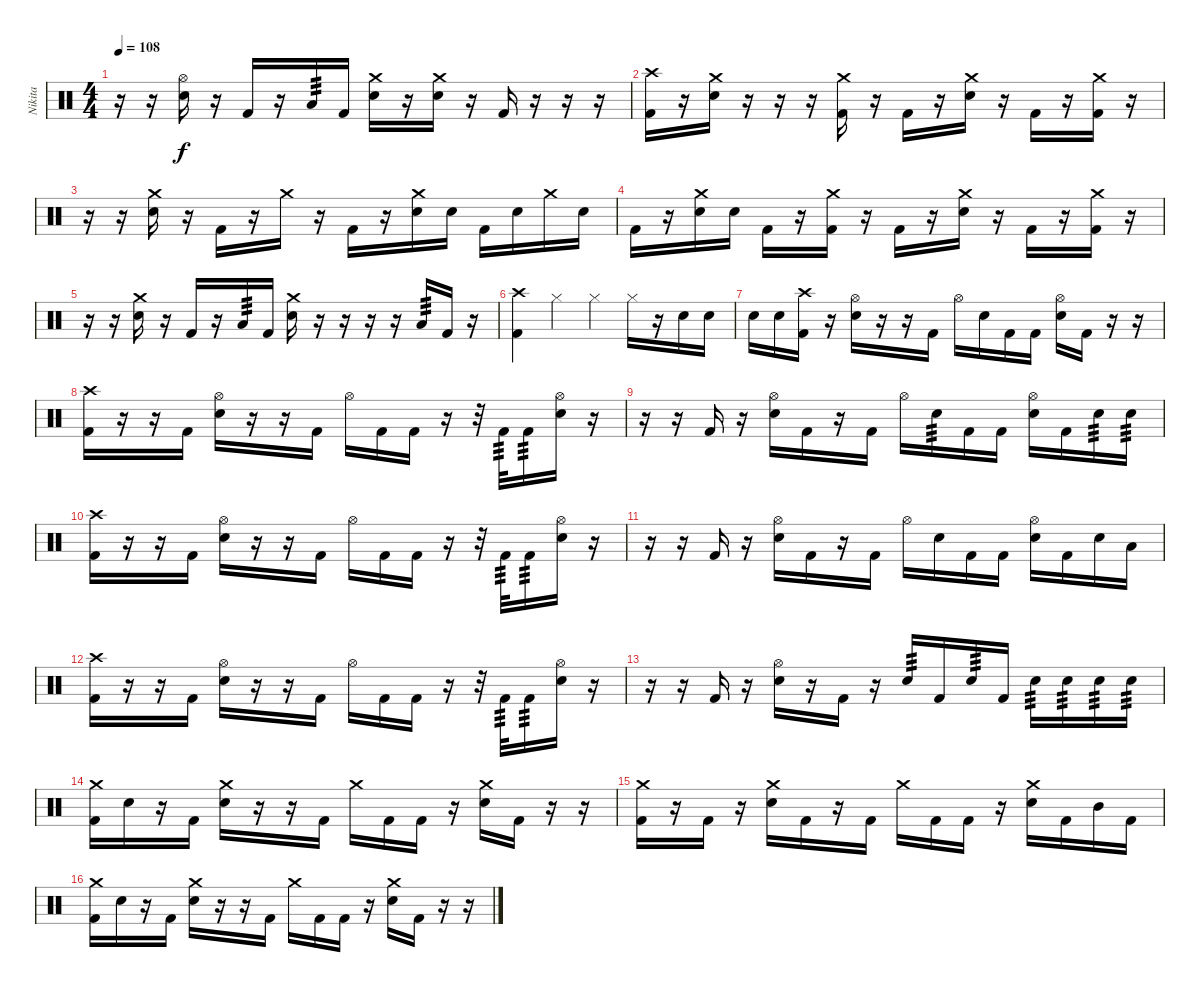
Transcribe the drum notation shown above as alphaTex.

\track ("Nikita" "Nikita") {instrument percussion}
\staff {score}
\articulation defaults
\ts (4 4)
\tempo 108
\clef neutral
\ks c
r.16{dy f} r.16 ("Hi-Hat (open)" "Electric Snare (hit)").16 r.16 "Kick (hit) 2".16 r.16 "Low Tom (hit)".16{tp 3} "Kick (hit) 2".16 ("Crash medium (hit)" "Electric Snare (hit)").16 r.16 ("Crash medium (hit)" "Electric Snare (hit)").16 r.16 "Kick (hit) 2".16 r.16 r.16 r.16 |
("Crash high (hit)" "Kick (hit) 2").16 r.16 ("Crash medium (hit)" "Electric Snare (hit)").16 r.16 r.16 r.16 ("Crash medium (hit)" "Kick (hit) 2").16 r.16 "Kick (hit) 2".16 r.16 ("Crash medium (hit)" "Electric Snare (hit)").16 r.16 "Kick (hit) 2".16 r.16 ("Crash medium (hit)" "Kick (hit) 2").16 r.16 |
r.16 r.16 ("Crash medium (hit)" "Electric Snare (hit)").16 r.16 "Kick (hit) 2".16 r.16 "Crash medium (hit)".16 r.16 "Kick (hit) 2".16 r.16 ("Crash medium (hit)" "Electric Snare (hit)").16 "Electric Snare (hit)".16 "Kick (hit) 2".16 "Electric Snare (hit)".16 "Crash medium (hit)".16 "Electric Snare (hit)".16 |
"Kick (hit) 2".16 r.16 ("Crash medium (hit)" "Electric Snare (hit)").16 "Electric Snare (hit)".16 "Kick (hit) 2".16 r.16 ("Crash medium (hit)" "Kick (hit) 2").16 r.16 "Kick (hit) 2".16 r.16 ("Crash medium (hit)" "Electric Snare (hit)").16 r.16 "Kick (hit) 2".16 r.16 ("Crash medium (hit)" "Kick (hit) 2").16 r.16 |
r.16 r.16 ("Crash medium (hit)" "Electric Snare (hit)").16 r.16 "Kick (hit) 2".16 r.16 "Low Tom (hit)".16{tp 3} "Kick (hit) 2".16 ("Crash medium (hit)" "Electric Snare (hit)").16 r.16 r.16 r.16 r.16 "Low Tom (hit)".16{tp 3} "Kick (hit) 2".16 r.16 |
("Crash high (hit)" "Kick (hit) 2").4 "Hi-Hat (closed)".4 "Hi-Hat (closed)".4 "Hi-Hat (closed)".16 r.16 "Electric Snare (hit)".16 "Electric Snare (hit)".16 |
"Electric Snare (hit)".16 "Electric Snare (hit)".16 ("Crash high (hit)" "Kick (hit) 2").16 r.16 ("Hi-Hat (open)" "Electric Snare (hit)").16 r.16 r.16 "Kick (hit) 2".16 "Hi-Hat (open)".16 "Electric Snare (hit)".16 "Kick (hit) 2".16 "Kick (hit) 2".16 ("Hi-Hat (open)" "Electric Snare (hit)").16 "Kick (hit) 2".16 r.16 r.16 |
("Crash high (hit)" "Kick (hit) 2").16 r.16 r.16 "Kick (hit) 2".16 ("Hi-Hat (open)" "Electric Snare (hit)").16 r.16 r.16 "Kick (hit) 2".16 "Hi-Hat (open)".16 "Kick (hit) 2".16 "Kick (hit) 2".16 r.16 r.32 "Kick (hit) 2".32{tp 3} "Kick (hit) 2".16{tp 3} ("Hi-Hat (open)" "Electric Snare (hit)").16 r.16 |
r.16 r.16 "Kick (hit) 2".16 r.16 ("Hi-Hat (open)" "Electric Snare (hit)").16 "Kick (hit) 2".16 r.16 "Kick (hit) 2".16 "Hi-Hat (open)".16 "Electric Snare (hit)".16{tp 3} "Kick (hit) 2".16 "Kick (hit) 2".16 ("Hi-Hat (open)" "Electric Snare (hit)").16 "Kick (hit) 2".16 "Electric Snare (hit)".16{tp 3} "Electric Snare (hit)".16{tp 3} |
("Crash high (hit)" "Kick (hit) 2").16 r.16 r.16 "Kick (hit) 2".16 ("Hi-Hat (open)" "Electric Snare (hit)").16 r.16 r.16 "Kick (hit) 2".16 "Hi-Hat (open)".16 "Kick (hit) 2".16 "Kick (hit) 2".16 r.16 r.32 "Kick (hit) 2".32{tp 3} "Kick (hit) 2".16{tp 3} ("Hi-Hat (open)" "Electric Snare (hit)").16 r.16 |
r.16 r.16 "Kick (hit) 2".16 r.16 ("Hi-Hat (open)" "Electric Snare (hit)").16 "Kick (hit) 2".16 r.16 "Kick (hit) 2".16 "Hi-Hat (open)".16 "Electric Snare (hit)".16 "Kick (hit) 2".16 "Kick (hit) 2".16 ("Hi-Hat (open)" "Electric Snare (hit)").16 "Kick (hit) 2".16 "Electric Snare (hit)".16 "Low Tom (hit)".16 |
("Crash high (hit)" "Kick (hit) 2").16 r.16 r.16 "Kick (hit) 2".16 ("Hi-Hat (open)" "Electric Snare (hit)").16 r.16 r.16 "Kick (hit) 2".16 "Hi-Hat (open)".16 "Kick (hit) 2".16 "Kick (hit) 2".16 r.16 r.32 "Kick (hit) 2".32{tp 3} "Kick (hit) 2".16{tp 3} ("Hi-Hat (open)" "Electric Snare (hit)").16 r.16 |
r.16 r.16 "Kick (hit) 2".16 r.16 ("Hi-Hat (open)" "Electric Snare (hit)").16 r.16 "Kick (hit) 2".16 r.16 "Electric Snare (hit)".16{tp 3} "Kick (hit) 2".16 "Electric Snare (hit)".16{tp 3} "Kick (hit) 2".16 "Electric Snare (hit)".16{tp 3} "Electric Snare (hit)".16{tp 3} "Electric Snare (hit)".16{tp 3} "Electric Snare (hit)".16{tp 3} |
("Crash medium (hit)" "Kick (hit) 2").16 "Electric Snare (hit)".16 r.16 "Kick (hit) 2".16 ("Crash medium (hit)" "Electric Snare (hit)").16 r.16 r.16 "Kick (hit) 2".16 "Crash medium (hit)".16 "Kick (hit) 2".16 "Kick (hit) 2".16 r.16 ("Crash medium (hit)" "Electric Snare (hit)").16 "Kick (hit) 2".16 r.16 r.16 |
("Crash medium (hit)" "Kick (hit) 2").16 r.16 "Kick (hit) 2".16 r.16 ("Crash medium (hit)" "Electric Snare (hit)").16 "Kick (hit) 2".16 r.16 "Kick (hit) 2".16 "Crash medium (hit)".16 "Kick (hit) 2".16 "Kick (hit) 2".16 r.16 ("Crash medium (hit)" "Electric Snare (hit)").16 "Kick (hit) 2".16 "Mid Tom (hit)".16 "Kick (hit) 2".16 |
("Crash medium (hit)" "Kick (hit) 2").16 "Electric Snare (hit)".16 r.16 "Kick (hit) 2".16 ("Crash medium (hit)" "Electric Snare (hit)").16 r.16 r.16 "Kick (hit) 2".16 "Crash medium (hit)".16 "Kick (hit) 2".16 "Kick (hit) 2".16 r.16 ("Crash medium (hit)" "Electric Snare (hit)").16 "Kick (hit) 2".16 r.16 r.16
